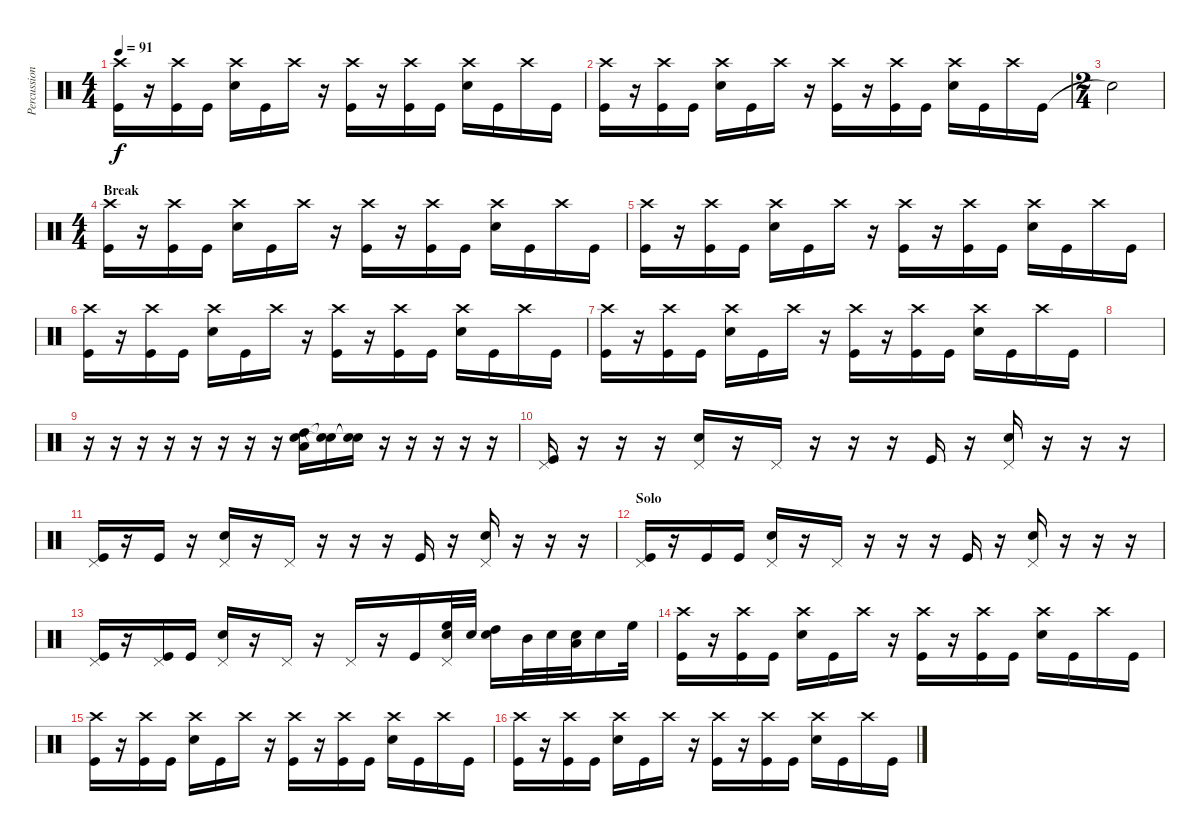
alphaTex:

\track ("Percussions (Nejo)" "Percussion") {instrument percussion}
\staff {score}
\articulation defaults
\ts (4 4)
\tempo 91
\clef neutral
\ks c
("Crash high (hit)" "Kick (hit)").16{dy f} r.16 ("Crash high (hit)" "Kick (hit)").16 "Kick (hit)".16 ("Crash high (hit)" "Electric Snare (hit)").16 "Kick (hit)".16 "Crash high (hit)".16 r.16 ("Crash high (hit)" "Kick (hit)").16 r.16 ("Crash high (hit)" "Kick (hit)").16 "Kick (hit)".16 ("Crash high (hit)" "Electric Snare (hit)").16 "Kick (hit)".16 "Crash high (hit)".16 "Kick (hit)".16 |
("Crash high (hit)" "Kick (hit)").16 r.16 ("Crash high (hit)" "Kick (hit)").16 "Kick (hit)".16 ("Crash high (hit)" "Electric Snare (hit)").16 "Kick (hit)".16 "Crash high (hit)".16 r.16 ("Crash high (hit)" "Kick (hit)").16 r.16 ("Crash high (hit)" "Kick (hit)").16 "Kick (hit)".16 ("Crash high (hit)" "Electric Snare (hit)").16 "Kick (hit)".16 "Crash high (hit)".16 "Kick (hit)".16 |
\ts (2 4)
"Snare (hit)"{t}.2 |
\ts (4 4)
\section ("" "Break ")
("Crash high (hit)" "Kick (hit)").16 r.16 ("Crash high (hit)" "Kick (hit)").16 "Kick (hit)".16 ("Crash high (hit)" "Electric Snare (hit)").16 "Kick (hit)".16 "Crash high (hit)".16 r.16 ("Crash high (hit)" "Kick (hit)").16 r.16 ("Crash high (hit)" "Kick (hit)").16 "Kick (hit)".16 ("Crash high (hit)" "Electric Snare (hit)").16 "Kick (hit)".16 "Crash high (hit)".16 "Kick (hit)".16 |
("Crash high (hit)" "Kick (hit)").16 r.16 ("Crash high (hit)" "Kick (hit)").16 "Kick (hit)".16 ("Crash high (hit)" "Electric Snare (hit)").16 "Kick (hit)".16 "Crash high (hit)".16 r.16 ("Crash high (hit)" "Kick (hit)").16 r.16 ("Crash high (hit)" "Kick (hit)").16 "Kick (hit)".16 ("Crash high (hit)" "Electric Snare (hit)").16 "Kick (hit)".16 "Crash high (hit)".16 "Kick (hit)".16 |
("Crash high (hit)" "Kick (hit)").16 r.16 ("Crash high (hit)" "Kick (hit)").16 "Kick (hit)".16 ("Crash high (hit)" "Electric Snare (hit)").16 "Kick (hit)".16 "Crash high (hit)".16 r.16 ("Crash high (hit)" "Kick (hit)").16 r.16 ("Crash high (hit)" "Kick (hit)").16 "Kick (hit)".16 ("Crash high (hit)" "Electric Snare (hit)").16 "Kick (hit)".16 "Crash high (hit)".16 "Kick (hit)".16 |
("Crash high (hit)" "Kick (hit)").16 r.16 ("Crash high (hit)" "Kick (hit)").16 "Kick (hit)".16 ("Crash high (hit)" "Electric Snare (hit)").16 "Kick (hit)".16 "Crash high (hit)".16 r.16 ("Crash high (hit)" "Kick (hit)").16 r.16 ("Crash high (hit)" "Kick (hit)").16 "Kick (hit)".16 ("Crash high (hit)" "Electric Snare (hit)").16 "Kick (hit)".16 "Crash high (hit)".16 "Kick (hit)".16 |
|
r.16 r.16 r.16 r.16 r.16 r.16 r.16 r.16 ("High Tom (hit)" "Low Tom (hit)" "Electric Snare (hit)").16 ("Snare (hit)"{t} "Snare (hit)"{t}).16 ("Snare (hit)"{t} "Snare (hit)"{t}).16 r.16 r.16 r.16 r.16 r.16 |
("Pedal Hi-Hat (hit)" "Kick (hit)").16 r.16 r.16 r.16 ("Pedal Hi-Hat (hit)" "Electric Snare (hit)").16 r.16 "Pedal Hi-Hat (hit)".16 r.16 r.16 r.16 "Kick (hit)".16 r.16 ("Pedal Hi-Hat (hit)" "Electric Snare (hit)").16 r.16 r.16 r.16 |
("Pedal Hi-Hat (hit)" "Kick (hit)").16 r.16 "Kick (hit)".16 r.16 ("Pedal Hi-Hat (hit)" "Electric Snare (hit)").16 r.16 "Pedal Hi-Hat (hit)".16 r.16 r.16 r.16 "Kick (hit)".16 r.16 ("Pedal Hi-Hat (hit)" "Electric Snare (hit)").16 r.16 r.16 r.16 |
\section ("" "Solo")
("Pedal Hi-Hat (hit)" "Kick (hit)").16 r.16 "Kick (hit)".16 "Kick (hit)".16 ("Pedal Hi-Hat (hit)" "Electric Snare (hit)").16 r.16 "Pedal Hi-Hat (hit)".16 r.16 r.16 r.16 "Kick (hit)".16 r.16 ("Pedal Hi-Hat (hit)" "Electric Snare (hit)").16 r.16 r.16 r.16 |
("Pedal Hi-Hat (hit)" "Kick (hit)").16 r.16 ("Pedal Hi-Hat (hit)" "Kick (hit)").16 "Kick (hit)".16 ("Pedal Hi-Hat (hit)" "Electric Snare (hit)").16 r.16 "Pedal Hi-Hat (hit)".16 r.16 "Pedal Hi-Hat (hit)".16 r.16 "Kick (hit)".16 ("Pedal Hi-Hat (hit)" "High Floor Tom (hit)" "Electric Snare (hit)").32 "Electric Snare (hit)".32 ("High Tom (hit)" "Electric Snare (hit)").16 "Mid Tom (hit)".32 "Electric Snare (hit)".32 ("Low Tom (hit)" "Electric Snare (hit)").32 "Electric Snare (hit)".16 "High Floor Tom (hit)".32 |
("Crash high (hit)" "Kick (hit)").16 r.16 ("Crash high (hit)" "Kick (hit)").16 "Kick (hit)".16 ("Crash high (hit)" "Electric Snare (hit)").16 "Kick (hit)".16 "Crash high (hit)".16 r.16 ("Crash high (hit)" "Kick (hit)").16 r.16 ("Crash high (hit)" "Kick (hit)").16 "Kick (hit)".16 ("Crash high (hit)" "Electric Snare (hit)").16 "Kick (hit)".16 "Crash high (hit)".16 "Kick (hit)".16 |
("Crash high (hit)" "Kick (hit)").16 r.16 ("Crash high (hit)" "Kick (hit)").16 "Kick (hit)".16 ("Crash high (hit)" "Electric Snare (hit)").16 "Kick (hit)".16 "Crash high (hit)".16 r.16 ("Crash high (hit)" "Kick (hit)").16 r.16 ("Crash high (hit)" "Kick (hit)").16 "Kick (hit)".16 ("Crash high (hit)" "Electric Snare (hit)").16 "Kick (hit)".16 "Crash high (hit)".16 "Kick (hit)".16 |
("Crash high (hit)" "Kick (hit)").16 r.16 ("Crash high (hit)" "Kick (hit)").16 "Kick (hit)".16 ("Crash high (hit)" "Electric Snare (hit)").16 "Kick (hit)".16 "Crash high (hit)".16 r.16 ("Crash high (hit)" "Kick (hit)").16 r.16 ("Crash high (hit)" "Kick (hit)").16 "Kick (hit)".16 ("Crash high (hit)" "Electric Snare (hit)").16 "Kick (hit)".16 "Crash high (hit)".16 "Kick (hit)".16
